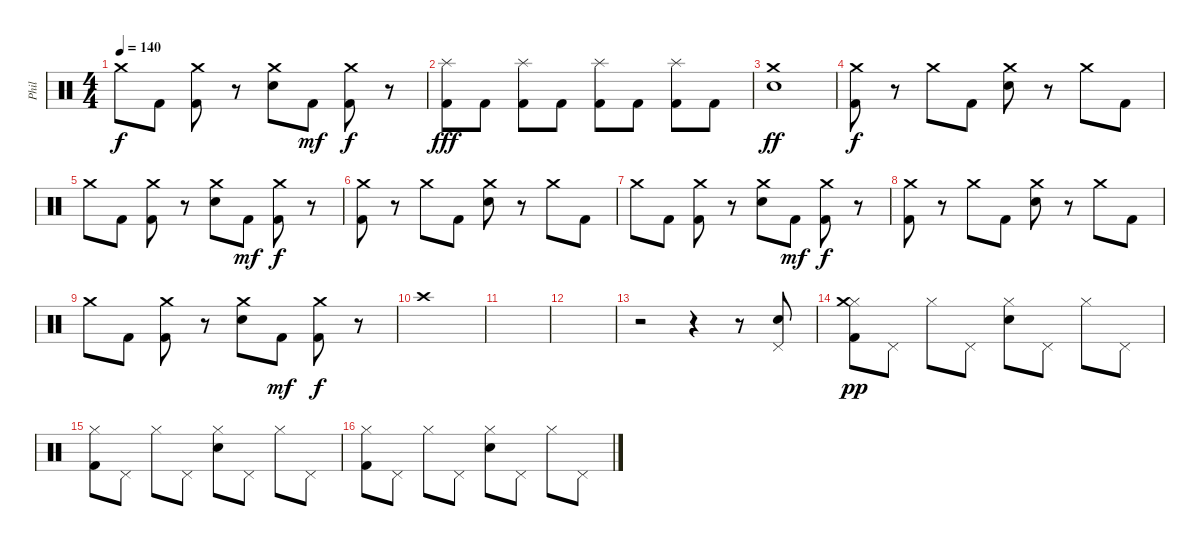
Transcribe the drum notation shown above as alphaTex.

\track ("Phil" "Phil") {instrument percussion}
\staff {score}
\articulation defaults
\ts (4 4)
\tempo 140
\clef neutral
\ks c "Crash medium (hit)".8{dy f} "Kick (hit) 2".8
("Crash medium (hit)" "Kick (hit) 2").8 r.8 ("Crash medium (hit)" "Snare (hit) 2").8 "Kick (hit) 2".8{dy mf} ("Crash medium (hit)" "Kick (hit) 2").8{dy f} r.8 |
("Splash (hit)" "Kick (hit) 2").8{dy fff} "Kick (hit) 2".8 ("Splash (hit)" "Kick (hit) 2").8 "Kick (hit) 2".8 ("Splash (hit)" "Kick (hit) 2").8 "Kick (hit) 2".8 ("Splash (hit)" "Kick (hit) 2").8 "Kick (hit) 2".8 |
("Crash medium (hit)" "Snare (hit) 2").1{dy ff} |
("Crash medium (hit)" "Kick (hit) 2").8{dy f} r.8 "Crash medium (hit)".8 "Kick (hit) 2".8 ("Crash medium (hit)" "Snare (hit) 2").8 r.8 "Crash medium (hit)".8 "Kick (hit) 2".8 |
"Crash medium (hit)".8 "Kick (hit) 2".8 ("Crash medium (hit)" "Kick (hit) 2").8 r.8 ("Crash medium (hit)" "Snare (hit) 2").8 "Kick (hit) 2".8{dy mf} ("Crash medium (hit)" "Kick (hit) 2").8{dy f} r.8 |
("Crash medium (hit)" "Kick (hit) 2").8 r.8 "Crash medium (hit)".8 "Kick (hit) 2".8 ("Crash medium (hit)" "Snare (hit) 2").8 r.8 "Crash medium (hit)".8 "Kick (hit) 2".8 |
"Crash medium (hit)".8 "Kick (hit) 2".8 ("Crash medium (hit)" "Kick (hit) 2").8 r.8 ("Crash medium (hit)" "Snare (hit) 2").8 "Kick (hit) 2".8{dy mf} ("Crash medium (hit)" "Kick (hit) 2").8{dy f} r.8 |
("Crash medium (hit)" "Kick (hit) 2").8 r.8 "Crash medium (hit)".8 "Kick (hit) 2".8 ("Crash medium (hit)" "Snare (hit) 2").8 r.8 "Crash medium (hit)".8 "Kick (hit) 2".8 |
"Crash medium (hit)".8 "Kick (hit) 2".8 ("Crash medium (hit)" "Kick (hit) 2").8 r.8 ("Crash medium (hit)" "Snare (hit) 2").8 "Kick (hit) 2".8{dy mf} ("Crash medium (hit)" "Kick (hit) 2").8{dy f} r.8 |
"Crash high (hit)".1 |
|
|
r.2 r.4 r.8 ("Pedal Hi-Hat (hit)" "Snare (hit) 2").8 |
("Hi-Hat (closed)" "Crash medium (hit)" "Kick (hit) 2").8{dy pp} "Pedal Hi-Hat (hit)".8 "Hi-Hat (closed)".8 "Pedal Hi-Hat (hit)".8 ("Hi-Hat (closed)" "Snare (hit) 2").8 "Pedal Hi-Hat (hit)".8 "Hi-Hat (closed)".8 "Pedal Hi-Hat (hit)".8 |
("Hi-Hat (closed)" "Kick (hit) 2").8 "Pedal Hi-Hat (hit)".8 "Hi-Hat (closed)".8 "Pedal Hi-Hat (hit)".8 ("Hi-Hat (closed)" "Snare (hit) 2").8 "Pedal Hi-Hat (hit)".8 "Hi-Hat (closed)".8 "Pedal Hi-Hat (hit)".8 |
("Hi-Hat (closed)" "Kick (hit) 2").8 "Pedal Hi-Hat (hit)".8 "Hi-Hat (closed)".8 "Pedal Hi-Hat (hit)".8 ("Hi-Hat (closed)" "Snare (hit) 2").8 "Pedal Hi-Hat (hit)".8 "Hi-Hat (closed)".8 "Pedal Hi-Hat (hit)".8
